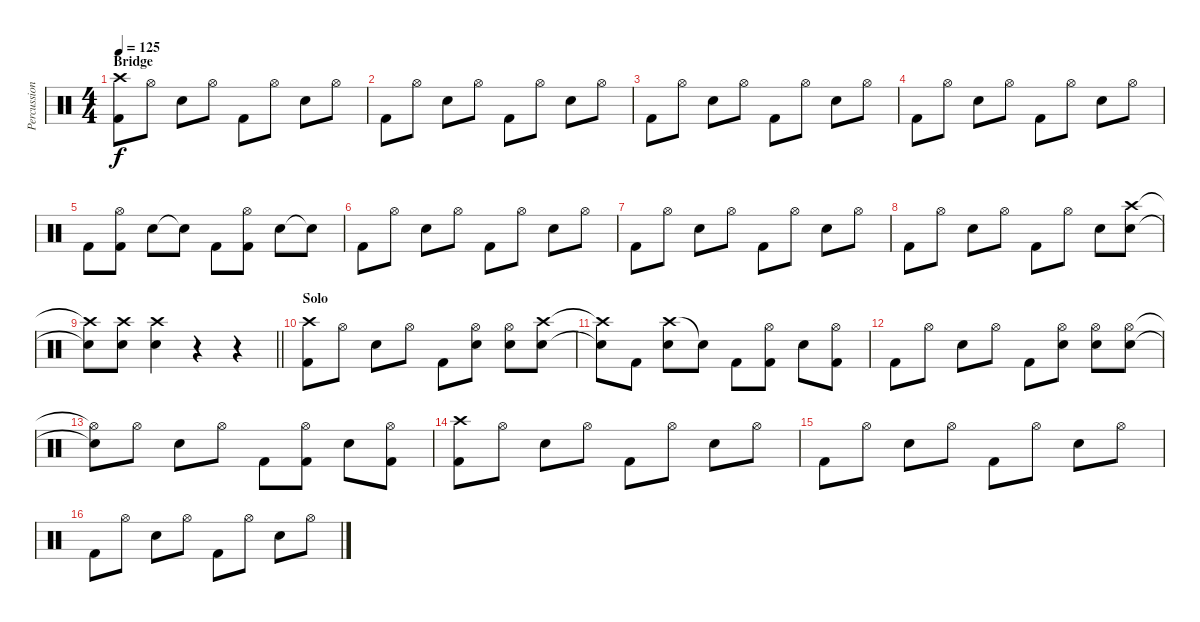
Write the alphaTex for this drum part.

\track ("Percussion" "Percussion") {instrument percussion}
\staff {score}
\articulation defaults
\ts (4 4)
\section ("" "Bridge")
\tempo 125
\clef neutral
\ks c
("Crash high (hit)" "Kick (hit) 2").8{dy f} "Hi-Hat (open)".8 "Snare (hit) 2".8 "Hi-Hat (open)".8 "Kick (hit) 2".8 "Hi-Hat (open)".8 "Snare (hit) 2".8 "Hi-Hat (open)".8 |
"Kick (hit) 2".8 "Hi-Hat (open)".8 "Snare (hit) 2".8 "Hi-Hat (open)".8 "Kick (hit) 2".8 "Hi-Hat (open)".8 "Snare (hit) 2".8 "Hi-Hat (open)".8 |
"Kick (hit) 2".8 "Hi-Hat (open)".8 "Snare (hit) 2".8 "Hi-Hat (open)".8 "Kick (hit) 2".8 "Hi-Hat (open)".8 "Snare (hit) 2".8 "Hi-Hat (open)".8 |
"Kick (hit) 2".8 "Hi-Hat (open)".8 "Snare (hit) 2".8 "Hi-Hat (open)".8 "Kick (hit) 2".8 "Hi-Hat (open)".8 "Snare (hit) 2".8 "Hi-Hat (open)".8 |
"Kick (hit) 2".8 ("Hi-Hat (open)" "Kick (hit) 2").8 "Snare (hit) 2".8 "Snare (hit) 2"{t}.8 "Kick (hit) 2".8 ("Hi-Hat (open)" "Kick (hit) 2").8 "Snare (hit) 2".8 "Snare (hit) 2"{t}.8 |
"Kick (hit) 2".8 "Hi-Hat (open)".8 "Snare (hit) 2".8 "Hi-Hat (open)".8 "Kick (hit) 2".8 "Hi-Hat (open)".8 "Snare (hit) 2".8 "Hi-Hat (open)".8 |
"Kick (hit) 2".8 "Hi-Hat (open)".8 "Snare (hit) 2".8 "Hi-Hat (open)".8 "Kick (hit) 2".8 "Hi-Hat (open)".8 "Snare (hit) 2".8 "Hi-Hat (open)".8 |
"Kick (hit) 2".8 "Hi-Hat (open)".8 "Snare (hit) 2".8 "Hi-Hat (open)".8 "Kick (hit) 2".8 "Hi-Hat (open)".8 "Snare (hit) 2".8 ("Crash high (hit)" "Snare (hit) 2").8 |
\barLineRight lightlight
("Crash high (hit)"{t} "Snare (hit) 2"{t}).8 ("Crash high (hit)" "Snare (hit) 2").8 ("Crash high (hit)" "Snare (hit) 2").4 r.4 r.4 |
\section ("" "Solo")
("Crash high (hit)" "Kick (hit) 2").8 "Hi-Hat (open)".8 "Snare (hit) 2".8 "Hi-Hat (open)".8 "Kick (hit) 2".8 ("Hi-Hat (open)" "Snare (hit) 2").8 ("Hi-Hat (open)" "Snare (hit) 2").8 ("Crash high (hit)" "Snare (hit) 2").8 |
("Crash high (hit)"{t} "Snare (hit) 2"{t}).8 "Kick (hit) 2".8 ("Crash high (hit)" "Snare (hit) 2").8 "Snare (hit) 2"{t}.8 "Kick (hit) 2".8 ("Hi-Hat (open)" "Kick (hit) 2").8 "Snare (hit) 2".8 ("Hi-Hat (open)" "Kick (hit) 2").8 |
"Kick (hit) 2".8 "Hi-Hat (open)".8 "Snare (hit) 2".8 "Hi-Hat (open)".8 "Kick (hit) 2".8 ("Hi-Hat (open)" "Snare (hit) 2").8 ("Hi-Hat (open)" "Snare (hit) 2").8 ("Hi-Hat (open)" "Snare (hit) 2").8 |
("Hi-Hat (open)"{t} "Snare (hit) 2"{t}).8 "Hi-Hat (open)".8 "Snare (hit) 2".8 "Hi-Hat (open)".8 "Kick (hit) 2".8 ("Hi-Hat (open)" "Kick (hit) 2").8 "Snare (hit) 2".8 ("Hi-Hat (open)" "Kick (hit) 2").8 |
("Crash high (hit)" "Kick (hit) 2").8 "Hi-Hat (open)".8 "Snare (hit) 2".8 "Hi-Hat (open)".8 "Kick (hit) 2".8 "Hi-Hat (open)".8 "Snare (hit) 2".8 "Hi-Hat (open)".8 |
"Kick (hit) 2".8 "Hi-Hat (open)".8 "Snare (hit) 2".8 "Hi-Hat (open)".8 "Kick (hit) 2".8 "Hi-Hat (open)".8 "Snare (hit) 2".8 "Hi-Hat (open)".8 |
"Kick (hit) 2".8 "Hi-Hat (open)".8 "Snare (hit) 2".8 "Hi-Hat (open)".8 "Kick (hit) 2".8 "Hi-Hat (open)".8 "Snare (hit) 2".8 "Hi-Hat (open)".8
